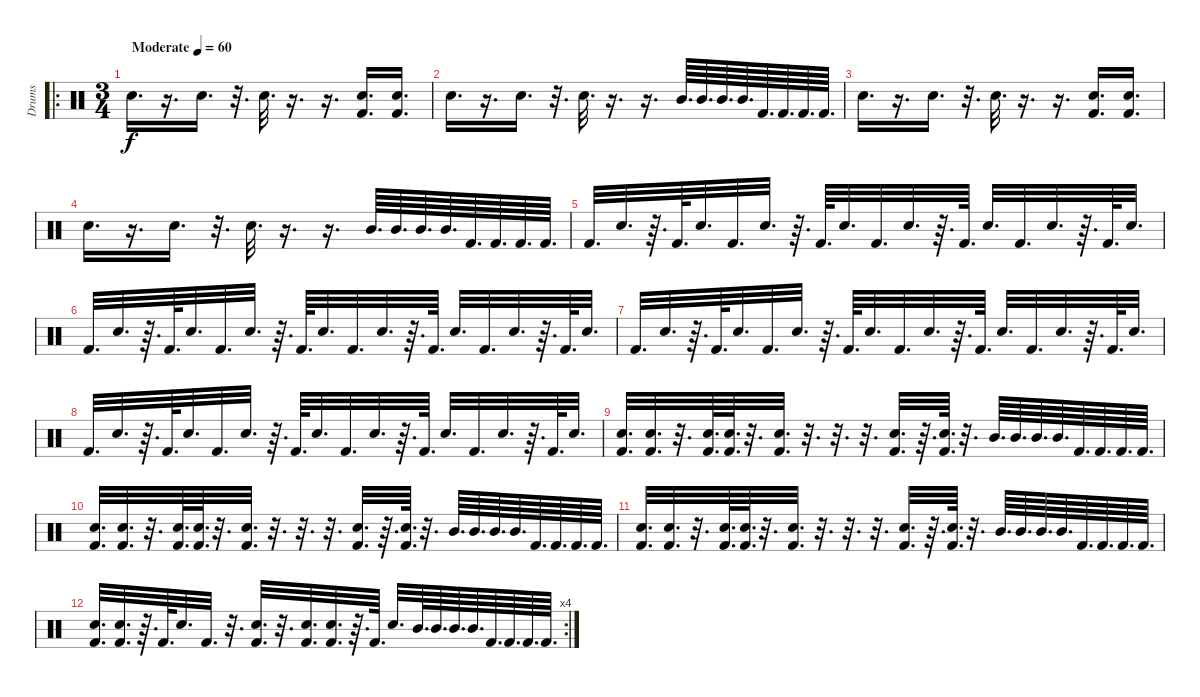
\track ("Drums" "Drums") {instrument percussion}
\staff
\articulation defaults
\ro
\ts (3 4)
\tempo (60 "Moderate")
\clef neutral
\ks c "Snare (hit) 2".16{d dy f}
r.16{d} "Snare (hit) 2".16{d} r.32{d} "Snare (hit) 2".32{d} r.16{d} r.16{d} ("Kick (hit) 2" "Snare (hit) 2").16{d} ("Kick (hit) 2" "Snare (hit) 2").16{d} |
"Snare (hit) 2".16{d} r.16{d} "Snare (hit) 2".16{d} r.32{d} "Snare (hit) 2".32{d} r.16{d} r.16{d} "Mid Tom (hit)".64{d} "Mid Tom (hit)".64{d} "Mid Tom (hit)".64{d} "Mid Tom (hit)".64{d} "Kick (hit) 2".64{d} "Kick (hit) 2".64{d} "Kick (hit) 2".64{d} "Kick (hit) 2".64{d} |
"Snare (hit) 2".16{d} r.16{d} "Snare (hit) 2".16{d} r.32{d} "Snare (hit) 2".32{d} r.16{d} r.16{d} ("Kick (hit) 2" "Snare (hit) 2").16{d} ("Kick (hit) 2" "Snare (hit) 2").16{d} |
"Snare (hit) 2".16{d} r.16{d} "Snare (hit) 2".16{d} r.32{d} "Snare (hit) 2".32{d} r.16{d} r.16{d} "Mid Tom (hit)".64{d} "Mid Tom (hit)".64{d} "Mid Tom (hit)".64{d} "Mid Tom (hit)".64{d} "Kick (hit) 2".64{d} "Kick (hit) 2".64{d} "Kick (hit) 2".64{d} "Kick (hit) 2".64{d} |
"Kick (hit) 2".32{d} "Snare (hit) 2".32{d} r.64{d} "Kick (hit) 2".64{d} "Snare (hit) 2".32{d} "Kick (hit) 2".32{d} "Snare (hit) 2".32{d} r.64{d} "Kick (hit) 2".64{d} "Snare (hit) 2".32{d} "Kick (hit) 2".32{d} "Snare (hit) 2".32{d} r.64{d} "Kick (hit) 2".64{d} "Snare (hit) 2".32{d} "Kick (hit) 2".32{d} "Snare (hit) 2".32{d} r.64{d} "Kick (hit) 2".64{d} "Snare (hit) 2".32{d} |
"Kick (hit) 2".32{d} "Snare (hit) 2".32{d} r.64{d} "Kick (hit) 2".64{d} "Snare (hit) 2".32{d} "Kick (hit) 2".32{d} "Snare (hit) 2".32{d} r.64{d} "Kick (hit) 2".64{d} "Snare (hit) 2".32{d} "Kick (hit) 2".32{d} "Snare (hit) 2".32{d} r.64{d} "Kick (hit) 2".64{d} "Snare (hit) 2".32{d} "Kick (hit) 2".32{d} "Snare (hit) 2".32{d} r.64{d} "Kick (hit) 2".64{d} "Snare (hit) 2".32{d} |
"Kick (hit) 2".32{d} "Snare (hit) 2".32{d} r.64{d} "Kick (hit) 2".64{d} "Snare (hit) 2".32{d} "Kick (hit) 2".32{d} "Snare (hit) 2".32{d} r.64{d} "Kick (hit) 2".64{d} "Snare (hit) 2".32{d} "Kick (hit) 2".32{d} "Snare (hit) 2".32{d} r.64{d} "Kick (hit) 2".64{d} "Snare (hit) 2".32{d} "Kick (hit) 2".32{d} "Snare (hit) 2".32{d} r.64{d} "Kick (hit) 2".64{d} "Snare (hit) 2".32{d} |
"Kick (hit) 2".32{d} "Snare (hit) 2".32{d} r.64{d} "Kick (hit) 2".64{d} "Snare (hit) 2".32{d} "Kick (hit) 2".32{d} "Snare (hit) 2".32{d} r.64{d} "Kick (hit) 2".64{d} "Snare (hit) 2".32{d} "Kick (hit) 2".32{d} "Snare (hit) 2".32{d} r.64{d} "Kick (hit) 2".64{d} "Snare (hit) 2".32{d} "Kick (hit) 2".32{d} "Snare (hit) 2".32{d} r.64{d} "Kick (hit) 2".64{d} "Snare (hit) 2".32{d} |
("Kick (hit) 2" "Snare (hit) 2").32{d} ("Kick (hit) 2" "Snare (hit) 2").32{d} r.32{d} ("Kick (hit) 2" "Snare (hit) 2").64{d} ("Kick (hit) 2" "Snare (hit) 2").64{d} r.32{d} ("Kick (hit) 2" "Snare (hit) 2").32{d} r.32{d} r.32{d} r.32{d} ("Kick (hit) 2" "Snare (hit) 2").32{d} r.64{d} ("Kick (hit) 2" "Snare (hit) 2").64{d} r.32{d} "Mid Tom (hit)".64{d} "Mid Tom (hit)".64{d} "Mid Tom (hit)".64{d} "Mid Tom (hit)".64{d} "Kick (hit) 2".64{d} "Kick (hit) 2".64{d} "Kick (hit) 2".64{d} "Kick (hit) 2".64{d} |
("Kick (hit) 2" "Snare (hit) 2").32{d} ("Kick (hit) 2" "Snare (hit) 2").32{d} r.32{d} ("Kick (hit) 2" "Snare (hit) 2").64{d} ("Kick (hit) 2" "Snare (hit) 2").64{d} r.32{d} ("Kick (hit) 2" "Snare (hit) 2").32{d} r.32{d} r.32{d} r.32{d} ("Kick (hit) 2" "Snare (hit) 2").32{d} r.64{d} ("Kick (hit) 2" "Snare (hit) 2").64{d} r.32{d} "Mid Tom (hit)".64{d} "Mid Tom (hit)".64{d} "Mid Tom (hit)".64{d} "Mid Tom (hit)".64{d} "Kick (hit) 2".64{d} "Kick (hit) 2".64{d} "Kick (hit) 2".64{d} "Kick (hit) 2".64{d} |
("Kick (hit) 2" "Snare (hit) 2").32{d} ("Kick (hit) 2" "Snare (hit) 2").32{d} r.32{d} ("Kick (hit) 2" "Snare (hit) 2").64{d} ("Kick (hit) 2" "Snare (hit) 2").64{d} r.32{d} ("Kick (hit) 2" "Snare (hit) 2").32{d} r.32{d} r.32{d} r.32{d} ("Kick (hit) 2" "Snare (hit) 2").32{d} r.64{d} ("Kick (hit) 2" "Snare (hit) 2").64{d} r.32{d} "Mid Tom (hit)".64{d} "Mid Tom (hit)".64{d} "Mid Tom (hit)".64{d} "Mid Tom (hit)".64{d} "Kick (hit) 2".64{d} "Kick (hit) 2".64{d} "Kick (hit) 2".64{d} "Kick (hit) 2".64{d} |
\rc 4
("Kick (hit) 2" "Snare (hit) 2").32{d} ("Kick (hit) 2" "Snare (hit) 2").32{d} r.64{d} "Kick (hit) 2".64{d} "Snare (hit) 2".32{d} "Kick (hit) 2".32{d} r.32{d} ("Kick (hit) 2" "Snare (hit) 2").32{d} r.32{d} ("Kick (hit) 2" "Snare (hit) 2").32{d} ("Kick (hit) 2" "Snare (hit) 2").32{d} r.64{d} "Kick (hit) 2".64{d} "Snare (hit) 2".32{d} "Mid Tom (hit)".64{d} "Mid Tom (hit)".64{d} "Mid Tom (hit)".64{d} "Mid Tom (hit)".64{d} "Kick (hit) 2".64{d} "Kick (hit) 2".64{d} "Kick (hit) 2".64{d} "Kick (hit) 2".64{d}
